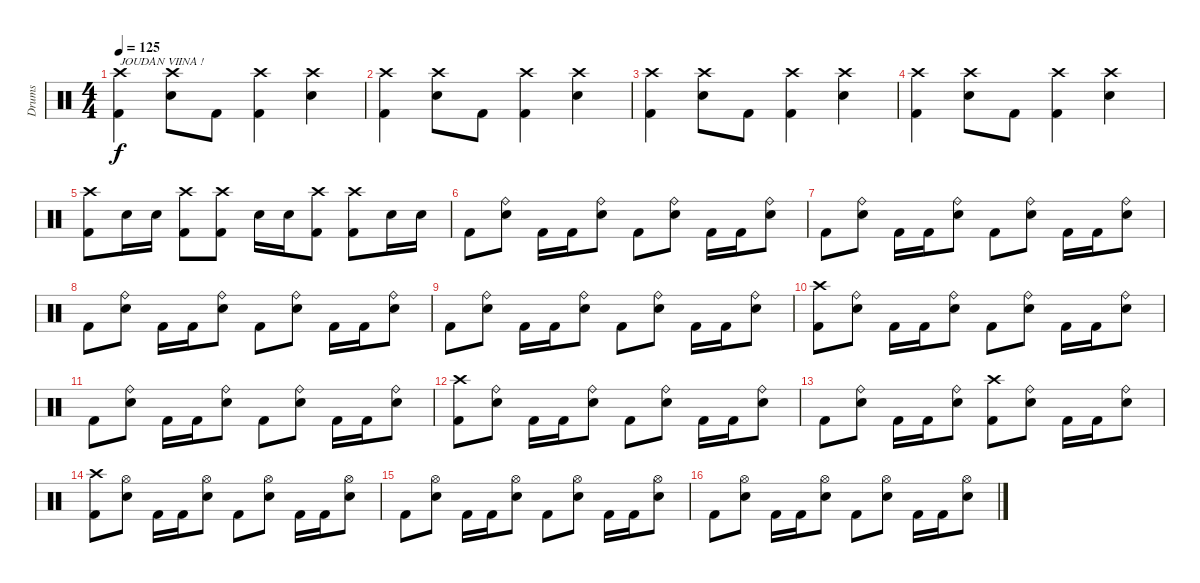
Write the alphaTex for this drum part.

\track ("Drums" "Drums") {instrument percussion}
\staff {score}
\articulation defaults
\ts (4 4)
\tempo 125
\clef neutral
\ks c
("Crash high (hit)" "Kick (hit) 2").4{txt "JOUDAN VIINA !" dy f} ("Crash high (hit)" "Electric Snare (hit)").8 "Kick (hit) 2".8 ("Crash high (hit)" "Kick (hit) 2").4 ("Crash high (hit)" "Electric Snare (hit)").4 |
("Crash high (hit)" "Kick (hit) 2").4 ("Crash high (hit)" "Electric Snare (hit)").8 "Kick (hit) 2".8 ("Crash high (hit)" "Kick (hit) 2").4 ("Crash high (hit)" "Electric Snare (hit)").4 |
("Crash high (hit)" "Kick (hit) 2").4 ("Crash high (hit)" "Electric Snare (hit)").8 "Kick (hit) 2".8 ("Crash high (hit)" "Kick (hit) 2").4 ("Crash high (hit)" "Electric Snare (hit)").4 |
("Crash high (hit)" "Kick (hit) 2").4 ("Crash high (hit)" "Electric Snare (hit)").8 "Kick (hit) 2".8 ("Crash high (hit)" "Kick (hit) 2").4 ("Crash high (hit)" "Electric Snare (hit)").4 |
("Crash high (hit)" "Kick (hit) 2").8 "Electric Snare (hit)".16 "Electric Snare (hit)".16 ("Crash high (hit)" "Kick (hit) 2").8 ("Crash high (hit)" "Kick (hit) 2").8 "Electric Snare (hit)".16 "Electric Snare (hit)".16 ("Crash high (hit)" "Kick (hit) 2").8 ("Crash high (hit)" "Kick (hit) 2").8 "Electric Snare (hit)".16 "Electric Snare (hit)".16 |
"Kick (hit) 2".8 ("Ride (bell)" "Electric Snare (hit)").8 "Kick (hit) 2".16 "Kick (hit) 2".16 ("Ride (bell)" "Electric Snare (hit)").8 "Kick (hit) 2".8 ("Ride (bell)" "Electric Snare (hit)").8 "Kick (hit) 2".16 "Kick (hit) 2".16 ("Ride (bell)" "Electric Snare (hit)").8 |
"Kick (hit) 2".8 ("Ride (bell)" "Electric Snare (hit)").8 "Kick (hit) 2".16 "Kick (hit) 2".16 ("Ride (bell)" "Electric Snare (hit)").8 "Kick (hit) 2".8 ("Ride (bell)" "Electric Snare (hit)").8 "Kick (hit) 2".16 "Kick (hit) 2".16 ("Ride (bell)" "Electric Snare (hit)").8 |
"Kick (hit) 2".8 ("Ride (bell)" "Electric Snare (hit)").8 "Kick (hit) 2".16 "Kick (hit) 2".16 ("Ride (bell)" "Electric Snare (hit)").8 "Kick (hit) 2".8 ("Ride (bell)" "Electric Snare (hit)").8 "Kick (hit) 2".16 "Kick (hit) 2".16 ("Ride (bell)" "Electric Snare (hit)").8 |
"Kick (hit) 2".8 ("Ride (bell)" "Electric Snare (hit)").8 "Kick (hit) 2".16 "Kick (hit) 2".16 ("Ride (bell)" "Electric Snare (hit)").8 "Kick (hit) 2".8 ("Ride (bell)" "Electric Snare (hit)").8 "Kick (hit) 2".16 "Kick (hit) 2".16 ("Ride (bell)" "Electric Snare (hit)").8 |
("Crash high (hit)" "Kick (hit) 2").8 ("Ride (bell)" "Electric Snare (hit)").8 "Kick (hit) 2".16 "Kick (hit) 2".16 ("Ride (bell)" "Electric Snare (hit)").8 "Kick (hit) 2".8 ("Ride (bell)" "Electric Snare (hit)").8 "Kick (hit) 2".16 "Kick (hit) 2".16 ("Ride (bell)" "Electric Snare (hit)").8 |
"Kick (hit) 2".8 ("Ride (bell)" "Electric Snare (hit)").8 "Kick (hit) 2".16 "Kick (hit) 2".16 ("Ride (bell)" "Electric Snare (hit)").8 "Kick (hit) 2".8 ("Ride (bell)" "Electric Snare (hit)").8 "Kick (hit) 2".16 "Kick (hit) 2".16 ("Ride (bell)" "Electric Snare (hit)").8 |
("Crash high (hit)" "Kick (hit) 2").8 ("Ride (bell)" "Electric Snare (hit)").8 "Kick (hit) 2".16 "Kick (hit) 2".16 ("Ride (bell)" "Electric Snare (hit)").8 "Kick (hit) 2".8 ("Ride (bell)" "Electric Snare (hit)").8 "Kick (hit) 2".16 "Kick (hit) 2".16 ("Ride (bell)" "Electric Snare (hit)").8 |
"Kick (hit) 2".8 ("Ride (bell)" "Electric Snare (hit)").8 "Kick (hit) 2".16 "Kick (hit) 2".16 ("Ride (bell)" "Electric Snare (hit)").8 ("Crash high (hit)" "Kick (hit) 2").8 ("Ride (bell)" "Electric Snare (hit)").8 "Kick (hit) 2".16 "Kick (hit) 2".16 ("Ride (bell)" "Electric Snare (hit)").8 |
("Crash high (hit)" "Kick (hit) 2").8 ("Hi-Hat (open)" "Electric Snare (hit)").8 "Kick (hit) 2".16 "Kick (hit) 2".16 ("Hi-Hat (open)" "Electric Snare (hit)").8 "Kick (hit) 2".8 ("Hi-Hat (open)" "Electric Snare (hit)").8 "Kick (hit) 2".16 "Kick (hit) 2".16 ("Hi-Hat (open)" "Electric Snare (hit)").8 |
"Kick (hit) 2".8 ("Hi-Hat (open)" "Electric Snare (hit)").8 "Kick (hit) 2".16 "Kick (hit) 2".16 ("Hi-Hat (open)" "Electric Snare (hit)").8 "Kick (hit) 2".8 ("Hi-Hat (open)" "Electric Snare (hit)").8 "Kick (hit) 2".16 "Kick (hit) 2".16 ("Hi-Hat (open)" "Electric Snare (hit)").8 |
"Kick (hit) 2".8 ("Hi-Hat (open)" "Electric Snare (hit)").8 "Kick (hit) 2".16 "Kick (hit) 2".16 ("Hi-Hat (open)" "Electric Snare (hit)").8 "Kick (hit) 2".8 ("Hi-Hat (open)" "Electric Snare (hit)").8 "Kick (hit) 2".16 "Kick (hit) 2".16 ("Hi-Hat (open)" "Electric Snare (hit)").8
